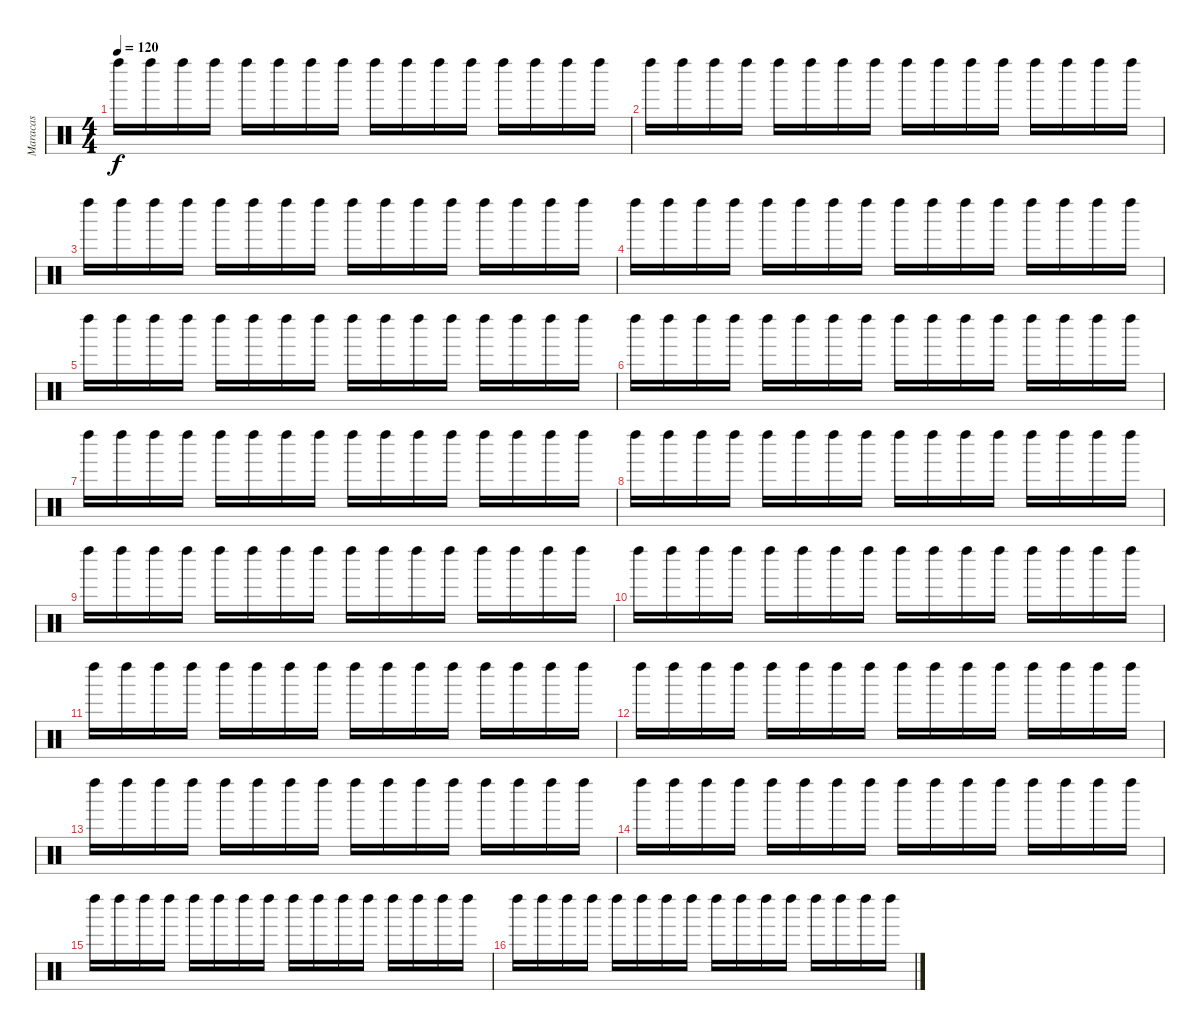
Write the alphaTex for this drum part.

\track ("Maracas" "Maracas") {instrument percussion}
\staff {score}
\articulation defaults
\ts (4 4)
\tempo 120
\clef neutral
\ks c "Left Maraca (hit)".16{dy f} "Left Maraca (hit)".16 "Left Maraca (hit)".16 "Left Maraca (hit)".16 "Left Maraca (hit)".16 "Left Maraca (hit)".16 "Left Maraca (hit)".16 "Left Maraca (hit)".16 "Left Maraca (hit)".16 "Left Maraca (hit)".16 "Left Maraca (hit)".16 "Left Maraca (hit)".16 "Left Maraca (hit)".16 "Left Maraca (hit)".16 "Left Maraca (hit)".16 "Left Maraca (hit)".16
|
"Left Maraca (hit)".16 "Left Maraca (hit)".16 "Left Maraca (hit)".16 "Left Maraca (hit)".16 "Left Maraca (hit)".16 "Left Maraca (hit)".16 "Left Maraca (hit)".16 "Left Maraca (hit)".16 "Left Maraca (hit)".16 "Left Maraca (hit)".16 "Left Maraca (hit)".16 "Left Maraca (hit)".16 "Left Maraca (hit)".16 "Left Maraca (hit)".16 "Left Maraca (hit)".16 "Left Maraca (hit)".16 |
"Left Maraca (hit)".16 "Left Maraca (hit)".16 "Left Maraca (hit)".16 "Left Maraca (hit)".16 "Left Maraca (hit)".16 "Left Maraca (hit)".16 "Left Maraca (hit)".16 "Left Maraca (hit)".16 "Left Maraca (hit)".16 "Left Maraca (hit)".16 "Left Maraca (hit)".16 "Left Maraca (hit)".16 "Left Maraca (hit)".16 "Left Maraca (hit)".16 "Left Maraca (hit)".16 "Left Maraca (hit)".16 |
"Left Maraca (hit)".16 "Left Maraca (hit)".16 "Left Maraca (hit)".16 "Left Maraca (hit)".16 "Left Maraca (hit)".16 "Left Maraca (hit)".16 "Left Maraca (hit)".16 "Left Maraca (hit)".16 "Left Maraca (hit)".16 "Left Maraca (hit)".16 "Left Maraca (hit)".16 "Left Maraca (hit)".16 "Left Maraca (hit)".16 "Left Maraca (hit)".16 "Left Maraca (hit)".16 "Left Maraca (hit)".16 |
"Left Maraca (hit)".16 "Left Maraca (hit)".16 "Left Maraca (hit)".16 "Left Maraca (hit)".16 "Left Maraca (hit)".16 "Left Maraca (hit)".16 "Left Maraca (hit)".16 "Left Maraca (hit)".16 "Left Maraca (hit)".16 "Left Maraca (hit)".16 "Left Maraca (hit)".16 "Left Maraca (hit)".16 "Left Maraca (hit)".16 "Left Maraca (hit)".16 "Left Maraca (hit)".16 "Left Maraca (hit)".16 |
"Left Maraca (hit)".16 "Left Maraca (hit)".16 "Left Maraca (hit)".16 "Left Maraca (hit)".16 "Left Maraca (hit)".16 "Left Maraca (hit)".16 "Left Maraca (hit)".16 "Left Maraca (hit)".16 "Left Maraca (hit)".16 "Left Maraca (hit)".16 "Left Maraca (hit)".16 "Left Maraca (hit)".16 "Left Maraca (hit)".16 "Left Maraca (hit)".16 "Left Maraca (hit)".16 "Left Maraca (hit)".16 |
"Left Maraca (hit)".16 "Left Maraca (hit)".16 "Left Maraca (hit)".16 "Left Maraca (hit)".16 "Left Maraca (hit)".16 "Left Maraca (hit)".16 "Left Maraca (hit)".16 "Left Maraca (hit)".16 "Left Maraca (hit)".16 "Left Maraca (hit)".16 "Left Maraca (hit)".16 "Left Maraca (hit)".16 "Left Maraca (hit)".16 "Left Maraca (hit)".16 "Left Maraca (hit)".16 "Left Maraca (hit)".16 |
"Left Maraca (hit)".16 "Left Maraca (hit)".16 "Left Maraca (hit)".16 "Left Maraca (hit)".16 "Left Maraca (hit)".16 "Left Maraca (hit)".16 "Left Maraca (hit)".16 "Left Maraca (hit)".16 "Left Maraca (hit)".16 "Left Maraca (hit)".16 "Left Maraca (hit)".16 "Left Maraca (hit)".16 "Left Maraca (hit)".16 "Left Maraca (hit)".16 "Left Maraca (hit)".16 "Left Maraca (hit)".16 |
"Left Maraca (hit)".16 "Left Maraca (hit)".16 "Left Maraca (hit)".16 "Left Maraca (hit)".16 "Left Maraca (hit)".16 "Left Maraca (hit)".16 "Left Maraca (hit)".16 "Left Maraca (hit)".16 "Left Maraca (hit)".16 "Left Maraca (hit)".16 "Left Maraca (hit)".16 "Left Maraca (hit)".16 "Left Maraca (hit)".16 "Left Maraca (hit)".16 "Left Maraca (hit)".16 "Left Maraca (hit)".16 |
"Left Maraca (hit)".16 "Left Maraca (hit)".16 "Left Maraca (hit)".16 "Left Maraca (hit)".16 "Left Maraca (hit)".16 "Left Maraca (hit)".16 "Left Maraca (hit)".16 "Left Maraca (hit)".16 "Left Maraca (hit)".16 "Left Maraca (hit)".16 "Left Maraca (hit)".16 "Left Maraca (hit)".16 "Left Maraca (hit)".16 "Left Maraca (hit)".16 "Left Maraca (hit)".16 "Left Maraca (hit)".16 |
"Left Maraca (hit)".16 "Left Maraca (hit)".16 "Left Maraca (hit)".16 "Left Maraca (hit)".16 "Left Maraca (hit)".16 "Left Maraca (hit)".16 "Left Maraca (hit)".16 "Left Maraca (hit)".16 "Left Maraca (hit)".16 "Left Maraca (hit)".16 "Left Maraca (hit)".16 "Left Maraca (hit)".16 "Left Maraca (hit)".16 "Left Maraca (hit)".16 "Left Maraca (hit)".16 "Left Maraca (hit)".16 |
"Left Maraca (hit)".16 "Left Maraca (hit)".16 "Left Maraca (hit)".16 "Left Maraca (hit)".16 "Left Maraca (hit)".16 "Left Maraca (hit)".16 "Left Maraca (hit)".16 "Left Maraca (hit)".16 "Left Maraca (hit)".16 "Left Maraca (hit)".16 "Left Maraca (hit)".16 "Left Maraca (hit)".16 "Left Maraca (hit)".16 "Left Maraca (hit)".16 "Left Maraca (hit)".16 "Left Maraca (hit)".16 |
"Left Maraca (hit)".16 "Left Maraca (hit)".16 "Left Maraca (hit)".16 "Left Maraca (hit)".16 "Left Maraca (hit)".16 "Left Maraca (hit)".16 "Left Maraca (hit)".16 "Left Maraca (hit)".16 "Left Maraca (hit)".16 "Left Maraca (hit)".16 "Left Maraca (hit)".16 "Left Maraca (hit)".16 "Left Maraca (hit)".16 "Left Maraca (hit)".16 "Left Maraca (hit)".16 "Left Maraca (hit)".16 |
"Left Maraca (hit)".16 "Left Maraca (hit)".16 "Left Maraca (hit)".16 "Left Maraca (hit)".16 "Left Maraca (hit)".16 "Left Maraca (hit)".16 "Left Maraca (hit)".16 "Left Maraca (hit)".16 "Left Maraca (hit)".16 "Left Maraca (hit)".16 "Left Maraca (hit)".16 "Left Maraca (hit)".16 "Left Maraca (hit)".16 "Left Maraca (hit)".16 "Left Maraca (hit)".16 "Left Maraca (hit)".16 |
"Left Maraca (hit)".16 "Left Maraca (hit)".16 "Left Maraca (hit)".16 "Left Maraca (hit)".16 "Left Maraca (hit)".16 "Left Maraca (hit)".16 "Left Maraca (hit)".16 "Left Maraca (hit)".16 "Left Maraca (hit)".16 "Left Maraca (hit)".16 "Left Maraca (hit)".16 "Left Maraca (hit)".16 "Left Maraca (hit)".16 "Left Maraca (hit)".16 "Left Maraca (hit)".16 "Left Maraca (hit)".16 |
"Left Maraca (hit)".16 "Left Maraca (hit)".16 "Left Maraca (hit)".16 "Left Maraca (hit)".16 "Left Maraca (hit)".16 "Left Maraca (hit)".16 "Left Maraca (hit)".16 "Left Maraca (hit)".16 "Left Maraca (hit)".16 "Left Maraca (hit)".16 "Left Maraca (hit)".16 "Left Maraca (hit)".16 "Left Maraca (hit)".16 "Left Maraca (hit)".16 "Left Maraca (hit)".16 "Left Maraca (hit)".16
